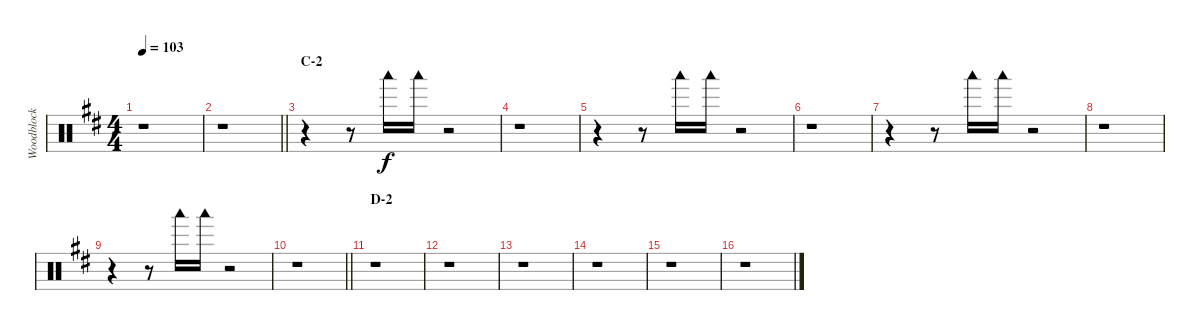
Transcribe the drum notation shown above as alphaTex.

\track ("Woodblock" "Woodblock") {instrument percussion}
\staff {score}
\articulation defaults
\ts (4 4)
\tempo 103
\clef neutral
\ks d
r.1{dy f} |
\barLineRight lightlight
r.1 |
\section ("" "C-2")
r.4 r.8 "Woodblock low (hit)".16 "Woodblock low (hit)".16 r.2 |
r.1 |
r.4 r.8 "Woodblock low (hit)".16 "Woodblock low (hit)".16 r.2 |
r.1 |
r.4 r.8 "Woodblock low (hit)".16 "Woodblock low (hit)".16 r.2 |
r.1 |
r.4 r.8 "Woodblock low (hit)".16 "Woodblock low (hit)".16 r.2 |
\barLineRight lightlight
r.1 |
\section ("" "D-2")
r.1 |
r.1 |
r.1 |
r.1 |
r.1 |
r.1
